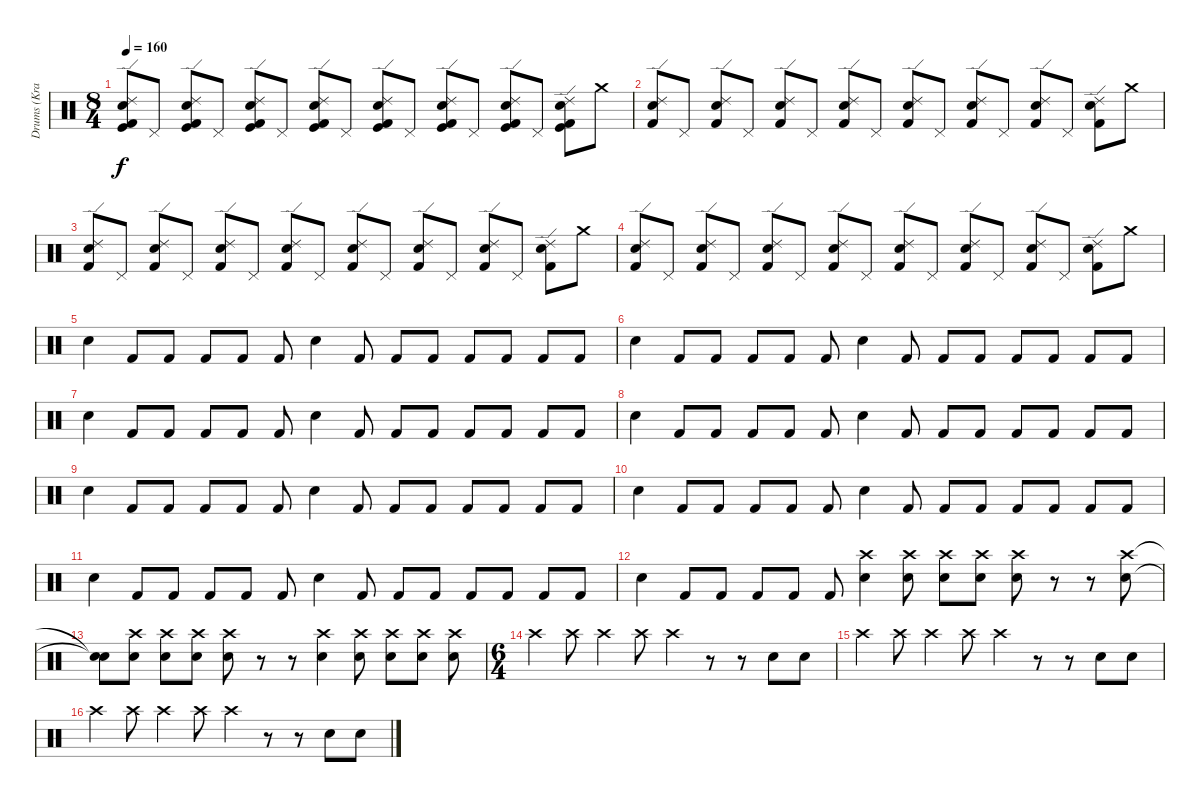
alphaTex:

\track ("Drums (Kram)" "Drums (Kra") {instrument percussion}
\staff {score}
\articulation defaults
\ts (8 4)
\tempo 160
\clef neutral
\ks c
("Kick (hit)" "Kick (hit) 2" "Ride (edge) 2" "Electric Snare (hit)").8{dy f} "Pedal Hi-Hat (hit)".8 ("Kick (hit)" "Kick (hit) 2" "Ride (edge) 2" "Electric Snare (hit)").8 "Pedal Hi-Hat (hit)".8 ("Kick (hit)" "Kick (hit) 2" "Ride (edge) 2" "Electric Snare (hit)").8 "Pedal Hi-Hat (hit)".8 ("Kick (hit)" "Kick (hit) 2" "Ride (edge) 2" "Electric Snare (hit)").8 "Pedal Hi-Hat (hit)".8 ("Kick (hit)" "Kick (hit) 2" "Ride (edge) 2" "Electric Snare (hit)").8 "Pedal Hi-Hat (hit)".8 ("Kick (hit)" "Kick (hit) 2" "Ride (edge) 2" "Electric Snare (hit)").8 "Pedal Hi-Hat (hit)".8 ("Kick (hit)" "Kick (hit) 2" "Ride (edge) 2" "Electric Snare (hit)").8 "Pedal Hi-Hat (hit)".8 ("Kick (hit)" "Kick (hit) 2" "Ride (edge) 2" "Electric Snare (hit)").8 "Crash medium (hit)".8 |
("Kick (hit) 2" "Ride (edge) 2" "Electric Snare (hit)").8 "Pedal Hi-Hat (hit)".8 ("Kick (hit) 2" "Ride (edge) 2" "Electric Snare (hit)").8 "Pedal Hi-Hat (hit)".8 ("Kick (hit) 2" "Ride (edge) 2" "Electric Snare (hit)").8 "Pedal Hi-Hat (hit)".8 ("Kick (hit) 2" "Ride (edge) 2" "Electric Snare (hit)").8 "Pedal Hi-Hat (hit)".8 ("Kick (hit) 2" "Ride (edge) 2" "Electric Snare (hit)").8 "Pedal Hi-Hat (hit)".8 ("Kick (hit) 2" "Ride (edge) 2" "Electric Snare (hit)").8 "Pedal Hi-Hat (hit)".8 ("Kick (hit) 2" "Ride (edge) 2" "Electric Snare (hit)").8 "Pedal Hi-Hat (hit)".8 ("Kick (hit) 2" "Ride (edge) 2" "Electric Snare (hit)").8 "Crash medium (hit)".8 |
("Kick (hit) 2" "Ride (edge) 2" "Electric Snare (hit)").8 "Pedal Hi-Hat (hit)".8 ("Kick (hit) 2" "Ride (edge) 2" "Electric Snare (hit)").8 "Pedal Hi-Hat (hit)".8 ("Kick (hit) 2" "Ride (edge) 2" "Electric Snare (hit)").8 "Pedal Hi-Hat (hit)".8 ("Kick (hit) 2" "Ride (edge) 2" "Electric Snare (hit)").8 "Pedal Hi-Hat (hit)".8 ("Kick (hit) 2" "Ride (edge) 2" "Electric Snare (hit)").8 "Pedal Hi-Hat (hit)".8 ("Kick (hit) 2" "Ride (edge) 2" "Electric Snare (hit)").8 "Pedal Hi-Hat (hit)".8 ("Kick (hit) 2" "Ride (edge) 2" "Electric Snare (hit)").8 "Pedal Hi-Hat (hit)".8 ("Kick (hit) 2" "Ride (edge) 2" "Electric Snare (hit)").8 "Crash medium (hit)".8 |
("Kick (hit) 2" "Ride (edge) 2" "Electric Snare (hit)").8 "Pedal Hi-Hat (hit)".8 ("Kick (hit) 2" "Ride (edge) 2" "Electric Snare (hit)").8 "Pedal Hi-Hat (hit)".8 ("Kick (hit) 2" "Ride (edge) 2" "Electric Snare (hit)").8 "Pedal Hi-Hat (hit)".8 ("Kick (hit) 2" "Ride (edge) 2" "Electric Snare (hit)").8 "Pedal Hi-Hat (hit)".8 ("Kick (hit) 2" "Ride (edge) 2" "Electric Snare (hit)").8 "Pedal Hi-Hat (hit)".8 ("Kick (hit) 2" "Ride (edge) 2" "Electric Snare (hit)").8 "Pedal Hi-Hat (hit)".8 ("Kick (hit) 2" "Ride (edge) 2" "Electric Snare (hit)").8 "Pedal Hi-Hat (hit)".8 ("Kick (hit) 2" "Ride (edge) 2" "Electric Snare (hit)").8 "Crash medium (hit)".8 |
"Electric Snare (hit)".4 "Kick (hit) 2".8 "Kick (hit) 2".8 "Kick (hit) 2".8 "Kick (hit) 2".8 "Kick (hit) 2".8 "Electric Snare (hit)".4 "Kick (hit) 2".8 "Kick (hit) 2".8 "Kick (hit) 2".8 "Kick (hit) 2".8 "Kick (hit) 2".8 "Kick (hit) 2".8 "Kick (hit) 2".8 |
"Electric Snare (hit)".4 "Kick (hit) 2".8 "Kick (hit) 2".8 "Kick (hit) 2".8 "Kick (hit) 2".8 "Kick (hit) 2".8 "Electric Snare (hit)".4 "Kick (hit) 2".8 "Kick (hit) 2".8 "Kick (hit) 2".8 "Kick (hit) 2".8 "Kick (hit) 2".8 "Kick (hit) 2".8 "Kick (hit) 2".8 |
"Electric Snare (hit)".4 "Kick (hit) 2".8 "Kick (hit) 2".8 "Kick (hit) 2".8 "Kick (hit) 2".8 "Kick (hit) 2".8 "Electric Snare (hit)".4 "Kick (hit) 2".8 "Kick (hit) 2".8 "Kick (hit) 2".8 "Kick (hit) 2".8 "Kick (hit) 2".8 "Kick (hit) 2".8 "Kick (hit) 2".8 |
"Electric Snare (hit)".4 "Kick (hit) 2".8 "Kick (hit) 2".8 "Kick (hit) 2".8 "Kick (hit) 2".8 "Kick (hit) 2".8 "Electric Snare (hit)".4 "Kick (hit) 2".8 "Kick (hit) 2".8 "Kick (hit) 2".8 "Kick (hit) 2".8 "Kick (hit) 2".8 "Kick (hit) 2".8 "Kick (hit) 2".8 |
"Electric Snare (hit)".4 "Kick (hit) 2".8 "Kick (hit) 2".8 "Kick (hit) 2".8 "Kick (hit) 2".8 "Kick (hit) 2".8 "Electric Snare (hit)".4 "Kick (hit) 2".8 "Kick (hit) 2".8 "Kick (hit) 2".8 "Kick (hit) 2".8 "Kick (hit) 2".8 "Kick (hit) 2".8 "Kick (hit) 2".8 |
"Electric Snare (hit)".4 "Kick (hit) 2".8 "Kick (hit) 2".8 "Kick (hit) 2".8 "Kick (hit) 2".8 "Kick (hit) 2".8 "Electric Snare (hit)".4 "Kick (hit) 2".8 "Kick (hit) 2".8 "Kick (hit) 2".8 "Kick (hit) 2".8 "Kick (hit) 2".8 "Kick (hit) 2".8 "Kick (hit) 2".8 |
"Electric Snare (hit)".4 "Kick (hit) 2".8 "Kick (hit) 2".8 "Kick (hit) 2".8 "Kick (hit) 2".8 "Kick (hit) 2".8 "Electric Snare (hit)".4 "Kick (hit) 2".8 "Kick (hit) 2".8 "Kick (hit) 2".8 "Kick (hit) 2".8 "Kick (hit) 2".8 "Kick (hit) 2".8 "Kick (hit) 2".8 |
"Electric Snare (hit)".4 "Kick (hit) 2".8 "Kick (hit) 2".8 "Kick (hit) 2".8 "Kick (hit) 2".8 "Kick (hit) 2".8 ("Crash high (hit)" "Electric Snare (hit)").4 ("Crash high (hit)" "Electric Snare (hit)").8 ("Crash high (hit)" "Electric Snare (hit)").8 ("Crash high (hit)" "Electric Snare (hit)").8 ("Crash high (hit)" "Electric Snare (hit)").8 r.8 r.8 ("Crash high (hit)" "Electric Snare (hit)").8 |
("Snare (hit)"{t} "Snare (hit)"{t}).8 ("Crash high (hit)" "Electric Snare (hit)").8 ("Crash high (hit)" "Electric Snare (hit)").8 ("Crash high (hit)" "Electric Snare (hit)").8 ("Crash high (hit)" "Electric Snare (hit)").8 r.8 r.8 ("Crash high (hit)" "Electric Snare (hit)").4 ("Crash high (hit)" "Electric Snare (hit)").8 ("Crash high (hit)" "Electric Snare (hit)").8 ("Crash high (hit)" "Electric Snare (hit)").8 ("Crash high (hit)" "Electric Snare (hit)").8 |
\ts (6 4)
"Crash high (hit)".4 "Crash high (hit)".8 "Crash high (hit)".4 "Crash high (hit)".8 "Crash high (hit)".4 r.8 r.8 "Electric Snare (hit)".8 "Electric Snare (hit)".8 |
"Crash high (hit)".4 "Crash high (hit)".8 "Crash high (hit)".4 "Crash high (hit)".8 "Crash high (hit)".4 r.8 r.8 "Electric Snare (hit)".8 "Electric Snare (hit)".8 |
"Crash high (hit)".4 "Crash high (hit)".8 "Crash high (hit)".4 "Crash high (hit)".8 "Crash high (hit)".4 r.8 r.8 "Electric Snare (hit)".8 "Electric Snare (hit)".8
